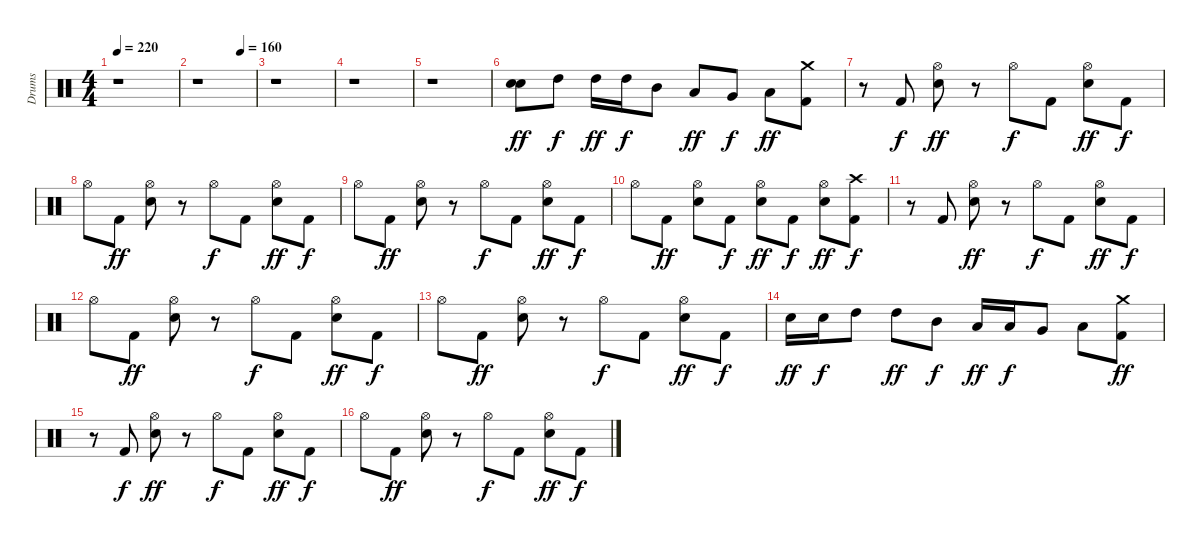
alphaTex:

\track ("Drums" "Drums") {instrument percussion}
\staff {score}
\articulation defaults
\ts (4 4)
\tempo 220
\clef neutral
\ks c
r.1{dy ff} |
\tempo (160 0.75)
r.1 |
r.1 |
r.1 |
r.1 |
("Electric Snare (hit)" "Electric Snare (hit)").8 "High Tom (hit)".8{dy f} "High Tom (hit)".16{dy ff} "High Tom (hit)".16{dy f} "Mid Tom (hit)".8 "Low Tom (hit)".8{dy ff} "Very Low Tom (hit)".8{dy f} "Low Floor Tom (hit)".8{dy ff} ("Kick (hit) 2" "Crash medium (hit)").8 |
r.8 "Kick (hit) 2".8{dy f} ("Electric Snare (hit)" "Hi-Hat (open)").8{dy ff} r.8 "Hi-Hat (open)".8{dy f} "Kick (hit) 2".8 ("Electric Snare (hit)" "Hi-Hat (open)").8{dy ff} "Kick (hit) 2".8{dy f} |
"Hi-Hat (open)".8 "Kick (hit) 2".8{dy ff} ("Electric Snare (hit)" "Hi-Hat (open)").8 r.8 "Hi-Hat (open)".8{dy f} "Kick (hit) 2".8 ("Electric Snare (hit)" "Hi-Hat (open)").8{dy ff} "Kick (hit) 2".8{dy f} |
"Hi-Hat (open)".8 "Kick (hit) 2".8{dy ff} ("Electric Snare (hit)" "Hi-Hat (open)").8 r.8 "Hi-Hat (open)".8{dy f} "Kick (hit) 2".8 ("Electric Snare (hit)" "Hi-Hat (open)").8{dy ff} "Kick (hit) 2".8{dy f} |
"Hi-Hat (open)".8 "Kick (hit) 2".8{dy ff} ("Electric Snare (hit)" "Hi-Hat (open)").8 "Kick (hit) 2".8{dy f} ("Electric Snare (hit)" "Hi-Hat (open)").8{dy ff} "Kick (hit) 2".8{dy f} ("Electric Snare (hit)" "Hi-Hat (open)").8{dy ff} ("Kick (hit) 2" "Crash high (hit)").8{dy f} |
r.8 "Kick (hit) 2".8 ("Electric Snare (hit)" "Hi-Hat (open)").8{dy ff} r.8 "Hi-Hat (open)".8{dy f} "Kick (hit) 2".8 ("Electric Snare (hit)" "Hi-Hat (open)").8{dy ff} "Kick (hit) 2".8{dy f} |
"Hi-Hat (open)".8 "Kick (hit) 2".8{dy ff} ("Electric Snare (hit)" "Hi-Hat (open)").8 r.8 "Hi-Hat (open)".8{dy f} "Kick (hit) 2".8 ("Electric Snare (hit)" "Hi-Hat (open)").8{dy ff} "Kick (hit) 2".8{dy f} |
"Hi-Hat (open)".8 "Kick (hit) 2".8{dy ff} ("Electric Snare (hit)" "Hi-Hat (open)").8 r.8 "Hi-Hat (open)".8{dy f} "Kick (hit) 2".8 ("Electric Snare (hit)" "Hi-Hat (open)").8{dy ff} "Kick (hit) 2".8{dy f} |
"Electric Snare (hit)".16{dy ff} "Electric Snare (hit)".16{dy f} "High Tom (hit)".8 "High Tom (hit)".8{dy ff} "Mid Tom (hit)".8{dy f} "Low Tom (hit)".16{dy ff} "Low Tom (hit)".16{dy f} "Very Low Tom (hit)".8 "Low Floor Tom (hit)".8 ("Kick (hit) 2" "Crash medium (hit)").8{dy ff} |
r.8 "Kick (hit) 2".8{dy f} ("Electric Snare (hit)" "Hi-Hat (open)").8{dy ff} r.8 "Hi-Hat (open)".8{dy f} "Kick (hit) 2".8 ("Electric Snare (hit)" "Hi-Hat (open)").8{dy ff} "Kick (hit) 2".8{dy f} |
"Hi-Hat (open)".8 "Kick (hit) 2".8{dy ff} ("Electric Snare (hit)" "Hi-Hat (open)").8 r.8 "Hi-Hat (open)".8{dy f} "Kick (hit) 2".8 ("Electric Snare (hit)" "Hi-Hat (open)").8{dy ff} "Kick (hit) 2".8{dy f}
